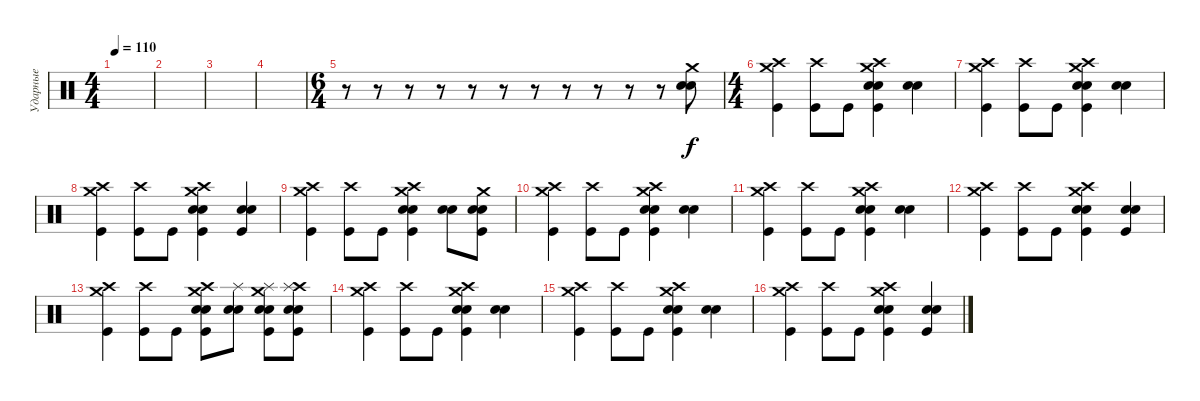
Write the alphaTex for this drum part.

\track ("Ударные" "Ударные") {instrument percussion}
\staff {score}
\articulation defaults
\ts (4 4)
\tempo 110
\clef neutral
\ks c
|
|
|
|
\ts (6 4)
r.8 r.8 r.8 r.8 r.8 r.8 r.8 r.8 r.8 r.8 r.8 ("Crash medium (hit)" "Snare (hit) 2" "Snare (hit) 2").8 |
\ts (4 4)
("Crash high (hit)" "Crash medium (hit)" "Kick (hit)").4 ("Crash high (hit)" "Kick (hit)").8 "Kick (hit)".8 ("Crash high (hit)" "Crash medium (hit)" "Snare (hit) 2" "Snare (hit) 2" "Kick (hit)").4 ("Snare (hit) 2" "Snare (hit) 2").4 |
("Crash high (hit)" "Crash medium (hit)" "Kick (hit)").4 ("Crash high (hit)" "Kick (hit)").8 "Kick (hit)".8 ("Crash high (hit)" "Crash medium (hit)" "Snare (hit) 2" "Snare (hit) 2" "Kick (hit)").4 ("Snare (hit) 2" "Snare (hit) 2").4 |
("Crash high (hit)" "Crash medium (hit)" "Kick (hit)").4 ("Crash high (hit)" "Kick (hit)").8 "Kick (hit)".8 ("Crash high (hit)" "Crash medium (hit)" "Snare (hit) 2" "Snare (hit) 2" "Kick (hit)").4 ("Snare (hit) 2" "Snare (hit) 2" "Kick (hit)").4 |
("Crash high (hit)" "Crash medium (hit)" "Kick (hit)").4 ("Crash high (hit)" "Kick (hit)").8 "Kick (hit)".8 ("Crash high (hit)" "Crash medium (hit)" "Snare (hit) 2" "Snare (hit) 2" "Kick (hit)").4 ("Snare (hit) 2" "Snare (hit) 2").8 ("Crash medium (hit)" "Snare (hit) 2" "Snare (hit) 2" "Kick (hit)").8 |
("Crash high (hit)" "Crash medium (hit)" "Kick (hit)").4 ("Crash high (hit)" "Kick (hit)").8 "Kick (hit)".8 ("Crash high (hit)" "Crash medium (hit)" "Snare (hit) 2" "Snare (hit) 2" "Kick (hit)").4 ("Snare (hit) 2" "Snare (hit) 2").4 |
("Crash high (hit)" "Crash medium (hit)" "Kick (hit)").4 ("Crash high (hit)" "Kick (hit)").8 "Kick (hit)".8 ("Crash high (hit)" "Crash medium (hit)" "Snare (hit) 2" "Snare (hit) 2" "Kick (hit)").4 ("Snare (hit) 2" "Snare (hit) 2").4 |
("Crash high (hit)" "Crash medium (hit)" "Kick (hit)").4 ("Crash high (hit)" "Kick (hit)").8 "Kick (hit)".8 ("Crash high (hit)" "Crash medium (hit)" "Snare (hit) 2" "Snare (hit) 2" "Kick (hit)").4 ("Snare (hit) 2" "Snare (hit) 2" "Kick (hit)").4 |
("Crash high (hit)" "Crash medium (hit)" "Kick (hit)").4 ("Crash high (hit)" "Kick (hit)").8 "Kick (hit)".8 ("Crash high (hit)" "Crash medium (hit)" "Snare (hit) 2" "Snare (hit) 2" "Kick (hit)").8 ("Splash (hit)" "Snare (hit) 2" "Snare (hit) 2").8 ("Crash medium (hit)" "Splash (hit)" "Snare (hit) 2" "Snare (hit) 2" "Kick (hit)").8 ("Crash high (hit)" "Splash (hit)" "Snare (hit) 2" "Snare (hit) 2" "Kick (hit)").8 |
("Crash high (hit)" "Crash medium (hit)" "Kick (hit)").4 ("Crash high (hit)" "Kick (hit)").8 "Kick (hit)".8 ("Crash high (hit)" "Crash medium (hit)" "Snare (hit) 2" "Snare (hit) 2" "Kick (hit)").4 ("Snare (hit) 2" "Snare (hit) 2").4 |
("Crash high (hit)" "Crash medium (hit)" "Kick (hit)").4 ("Crash high (hit)" "Kick (hit)").8 "Kick (hit)".8 ("Crash high (hit)" "Crash medium (hit)" "Snare (hit) 2" "Snare (hit) 2" "Kick (hit)").4 ("Snare (hit) 2" "Snare (hit) 2").4 |
("Crash high (hit)" "Crash medium (hit)" "Kick (hit)").4 ("Crash high (hit)" "Kick (hit)").8 "Kick (hit)".8 ("Crash high (hit)" "Crash medium (hit)" "Snare (hit) 2" "Snare (hit) 2" "Kick (hit)").4 ("Snare (hit) 2" "Snare (hit) 2" "Kick (hit)").4
